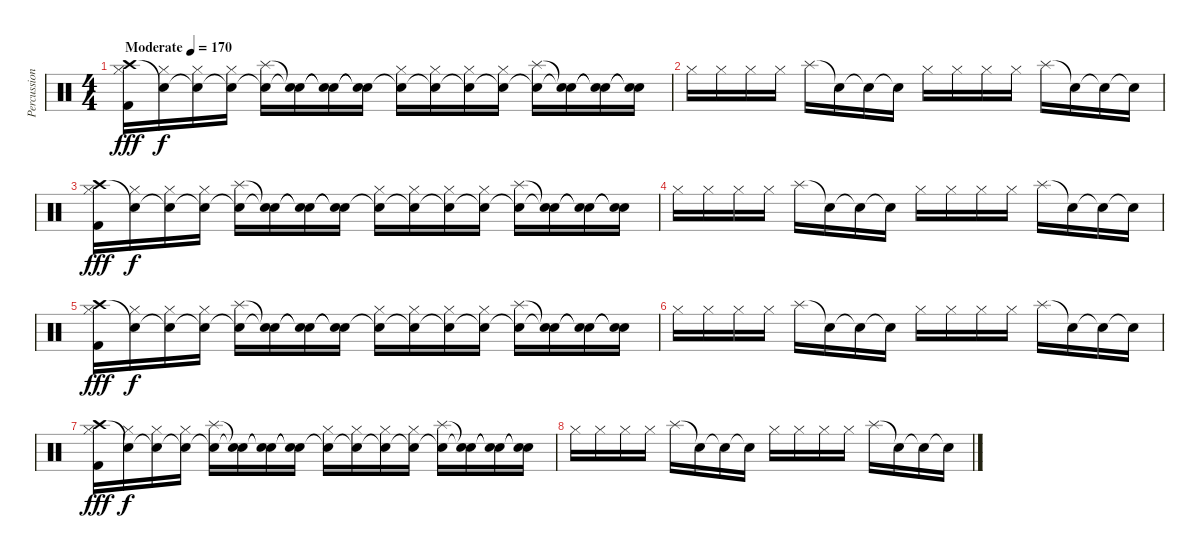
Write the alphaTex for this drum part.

\track ("Percussion" "Percussion") {instrument percussion}
\staff {score}
\articulation defaults
\ts (4 4)
\tempo (170 "Moderate")
\clef neutral
\ks c
("Crash high (hit)" "Hi-Hat (closed)" "Kick (hit) 2").16{dy fff} ("Snare (hit)"{t} "Hi-Hat (closed)").16{dy f} ("Snare (hit)"{t} "Hi-Hat (closed)").16 ("Snare (hit)"{t} "Hi-Hat (closed)").16 ("Snare (hit)"{t} "Splash (hit)").16 ("Snare (hit)"{t} "Snare (hit)"{t}).16 ("Snare (hit)"{t} "Snare (hit)"{t}).16 ("Snare (hit)"{t} "Snare (hit)"{t}).16 ("Snare (hit)"{t} "Hi-Hat (closed)").16 ("Snare (hit)"{t} "Hi-Hat (closed)").16 ("Snare (hit)"{t} "Hi-Hat (closed)").16 ("Snare (hit)"{t} "Hi-Hat (closed)").16 ("Snare (hit)"{t} "Splash (hit)").16 ("Snare (hit)"{t} "Snare (hit)"{t}).16 ("Snare (hit)"{t} "Snare (hit)"{t}).16 ("Snare (hit)"{t} "Snare (hit)"{t}).16 |
"Hi-Hat (closed)".16 "Hi-Hat (closed)".16 "Hi-Hat (closed)".16 "Hi-Hat (closed)".16 "Splash (hit)".16 "Snare (hit)"{t}.16 "Snare (hit)"{t}.16 "Snare (hit)"{t}.16 "Hi-Hat (closed)".16 "Hi-Hat (closed)".16 "Hi-Hat (closed)".16 "Hi-Hat (closed)".16 "Splash (hit)".16 "Snare (hit)"{t}.16 "Snare (hit)"{t}.16 "Snare (hit)"{t}.16 |
("Crash high (hit)" "Hi-Hat (closed)" "Kick (hit) 2").16{dy fff} ("Snare (hit)"{t} "Hi-Hat (closed)").16{dy f} ("Snare (hit)"{t} "Hi-Hat (closed)").16 ("Snare (hit)"{t} "Hi-Hat (closed)").16 ("Snare (hit)"{t} "Splash (hit)").16 ("Snare (hit)"{t} "Snare (hit)"{t}).16 ("Snare (hit)"{t} "Snare (hit)"{t}).16 ("Snare (hit)"{t} "Snare (hit)"{t}).16 ("Snare (hit)"{t} "Hi-Hat (closed)").16 ("Snare (hit)"{t} "Hi-Hat (closed)").16 ("Snare (hit)"{t} "Hi-Hat (closed)").16 ("Snare (hit)"{t} "Hi-Hat (closed)").16 ("Snare (hit)"{t} "Splash (hit)").16 ("Snare (hit)"{t} "Snare (hit)"{t}).16 ("Snare (hit)"{t} "Snare (hit)"{t}).16 ("Snare (hit)"{t} "Snare (hit)"{t}).16 |
"Hi-Hat (closed)".16 "Hi-Hat (closed)".16 "Hi-Hat (closed)".16 "Hi-Hat (closed)".16 "Splash (hit)".16 "Snare (hit)"{t}.16 "Snare (hit)"{t}.16 "Snare (hit)"{t}.16 "Hi-Hat (closed)".16 "Hi-Hat (closed)".16 "Hi-Hat (closed)".16 "Hi-Hat (closed)".16 "Splash (hit)".16 "Snare (hit)"{t}.16 "Snare (hit)"{t}.16 "Snare (hit)"{t}.16 |
("Crash high (hit)" "Hi-Hat (closed)" "Kick (hit) 2").16{dy fff} ("Snare (hit)"{t} "Hi-Hat (closed)").16{dy f} ("Snare (hit)"{t} "Hi-Hat (closed)").16 ("Snare (hit)"{t} "Hi-Hat (closed)").16 ("Snare (hit)"{t} "Splash (hit)").16 ("Snare (hit)"{t} "Snare (hit)"{t}).16 ("Snare (hit)"{t} "Snare (hit)"{t}).16 ("Snare (hit)"{t} "Snare (hit)"{t}).16 ("Snare (hit)"{t} "Hi-Hat (closed)").16 ("Snare (hit)"{t} "Hi-Hat (closed)").16 ("Snare (hit)"{t} "Hi-Hat (closed)").16 ("Snare (hit)"{t} "Hi-Hat (closed)").16 ("Snare (hit)"{t} "Splash (hit)").16 ("Snare (hit)"{t} "Snare (hit)"{t}).16 ("Snare (hit)"{t} "Snare (hit)"{t}).16 ("Snare (hit)"{t} "Snare (hit)"{t}).16 |
"Hi-Hat (closed)".16 "Hi-Hat (closed)".16 "Hi-Hat (closed)".16 "Hi-Hat (closed)".16 "Splash (hit)".16 "Snare (hit)"{t}.16 "Snare (hit)"{t}.16 "Snare (hit)"{t}.16 "Hi-Hat (closed)".16 "Hi-Hat (closed)".16 "Hi-Hat (closed)".16 "Hi-Hat (closed)".16 "Splash (hit)".16 "Snare (hit)"{t}.16 "Snare (hit)"{t}.16 "Snare (hit)"{t}.16 |
("Crash high (hit)" "Hi-Hat (closed)" "Kick (hit) 2").16{dy fff} ("Snare (hit)"{t} "Hi-Hat (closed)").16{dy f} ("Snare (hit)"{t} "Hi-Hat (closed)").16 ("Snare (hit)"{t} "Hi-Hat (closed)").16 ("Snare (hit)"{t} "Splash (hit)").16 ("Snare (hit)"{t} "Snare (hit)"{t}).16 ("Snare (hit)"{t} "Snare (hit)"{t}).16 ("Snare (hit)"{t} "Snare (hit)"{t}).16 ("Snare (hit)"{t} "Hi-Hat (closed)").16 ("Snare (hit)"{t} "Hi-Hat (closed)").16 ("Snare (hit)"{t} "Hi-Hat (closed)").16 ("Snare (hit)"{t} "Hi-Hat (closed)").16 ("Snare (hit)"{t} "Splash (hit)").16 ("Snare (hit)"{t} "Snare (hit)"{t}).16 ("Snare (hit)"{t} "Snare (hit)"{t}).16 ("Snare (hit)"{t} "Snare (hit)"{t}).16 |
"Hi-Hat (closed)".16 "Hi-Hat (closed)".16 "Hi-Hat (closed)".16 "Hi-Hat (closed)".16 "Splash (hit)".16 "Snare (hit)"{t}.16 "Snare (hit)"{t}.16 "Snare (hit)"{t}.16 "Hi-Hat (closed)".16 "Hi-Hat (closed)".16 "Hi-Hat (closed)".16 "Hi-Hat (closed)".16 "Splash (hit)".16 "Snare (hit)"{t}.16 "Snare (hit)"{t}.16 "Snare (hit)"{t}.16
